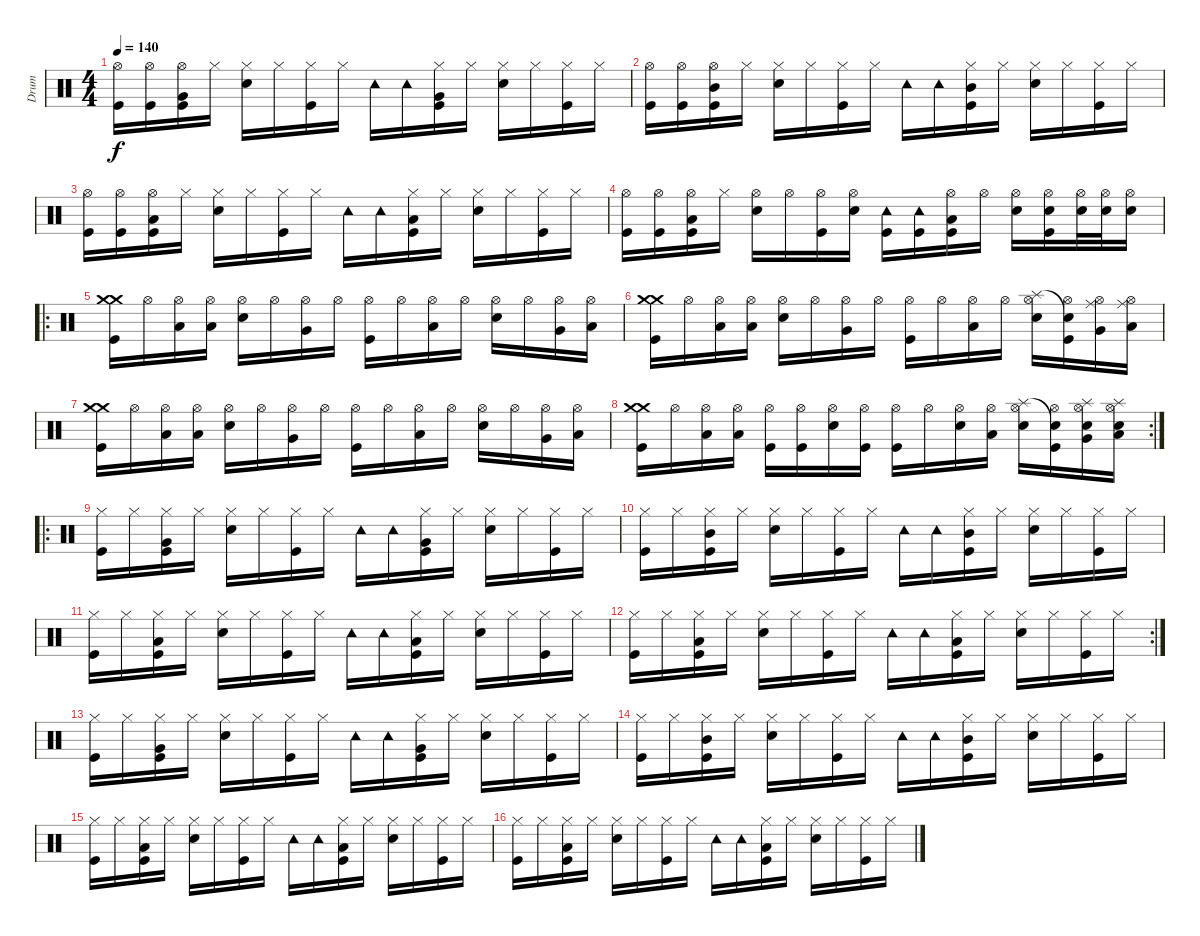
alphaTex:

\track ("Drum" "Drum") {instrument percussion}
\staff {score}
\articulation defaults
\ts (4 4)
\tempo 140
\clef neutral
\ks c
("Hi-Hat (open)" "Kick (hit)").16{dy f} ("Hi-Hat (open)" "Kick (hit)").16 ("Hi-Hat (open)" "Very Low Tom (hit)" "Kick (hit)").16 "Hi-Hat (closed)".16 ("Hi-Hat (closed)" "Snare (hit) 2").16 "Hi-Hat (closed)".16 ("Hi-Hat (closed)" "Kick (hit)").16 "Hi-Hat (closed)".16 "Tambourine (hit)".16 "Tambourine (hit)".16 ("Hi-Hat (closed)" "Very Low Tom (hit)" "Kick (hit)").16 "Hi-Hat (closed)".16 ("Hi-Hat (closed)" "Snare (hit) 2").16 "Hi-Hat (closed)".16 ("Hi-Hat (closed)" "Kick (hit)").16 "Hi-Hat (closed)".16 |
("Hi-Hat (open)" "Kick (hit)").16 ("Hi-Hat (open)" "Kick (hit)").16 ("Hi-Hat (open)" "Mid Tom (hit)" "Kick (hit)").16 "Hi-Hat (closed)".16 ("Hi-Hat (closed)" "Snare (hit) 2").16 "Hi-Hat (closed)".16 ("Hi-Hat (closed)" "Kick (hit)").16 "Hi-Hat (closed)".16 "Tambourine (hit)".16 "Tambourine (hit)".16 ("Hi-Hat (closed)" "Mid Tom (hit)" "Kick (hit)").16 "Hi-Hat (closed)".16 ("Hi-Hat (closed)" "Snare (hit) 2").16 "Hi-Hat (closed)".16 ("Hi-Hat (closed)" "Kick (hit)").16 "Hi-Hat (closed)".16 |
("Hi-Hat (open)" "Kick (hit)").16 ("Hi-Hat (open)" "Kick (hit)").16 ("Hi-Hat (open)" "Low Tom (hit)" "Kick (hit)").16 "Hi-Hat (closed)".16 ("Hi-Hat (closed)" "Snare (hit) 2").16 "Hi-Hat (closed)".16 ("Hi-Hat (closed)" "Kick (hit)").16 "Hi-Hat (closed)".16 "Tambourine (hit)".16 "Tambourine (hit)".16 ("Hi-Hat (closed)" "Low Tom (hit)" "Kick (hit)").16 "Hi-Hat (closed)".16 ("Hi-Hat (closed)" "Snare (hit) 2").16 "Hi-Hat (closed)".16 ("Hi-Hat (closed)" "Kick (hit)").16 "Hi-Hat (closed)".16 |
("Hi-Hat (open)" "Kick (hit)").16 ("Hi-Hat (open)" "Kick (hit)").16 ("Hi-Hat (open)" "Low Floor Tom (hit)" "Kick (hit)").16 "Hi-Hat (closed)".16 ("Hi-Hat (open)" "Snare (hit) 2").16 "Hi-Hat (open)".16 ("Hi-Hat (open)" "Kick (hit)").16 ("Hi-Hat (open)" "Snare (hit) 2").16 ("Tambourine (hit)" "Kick (hit)").16 ("Tambourine (hit)" "Kick (hit)").16 ("Hi-Hat (open)" "Low Floor Tom (hit)" "Kick (hit)").16 "Hi-Hat (open)".16 ("Hi-Hat (open)" "Snare (hit) 2").16 ("Hi-Hat (open)" "Snare (hit) 2" "Kick (hit)").16 ("Hi-Hat (open)" "Snare (hit) 2").32 ("Hi-Hat (open)" "Snare (hit) 2").32 ("Hi-Hat (open)" "Snare (hit) 2").16 |
\ro
("Crash medium (hit)" "Crash medium (hit)" "Kick (hit)").16 "Hi-Hat (open)".16 ("Hi-Hat (open)" "Low Tom (hit)").16 ("Hi-Hat (open)" "Low Tom (hit)").16 ("Hi-Hat (open)" "Snare (hit) 2").16 "Hi-Hat (open)".16 ("Hi-Hat (open)" "Very Low Tom (hit)").16 "Hi-Hat (open)".16 ("Hi-Hat (open)" "Kick (hit)").16 "Hi-Hat (open)".16 ("Hi-Hat (open)" "Low Tom (hit)").16 "Hi-Hat (open)".16 ("Hi-Hat (open)" "Snare (hit) 2").16 "Hi-Hat (open)".16 ("Hi-Hat (open)" "Very Low Tom (hit)").16 ("Hi-Hat (open)" "Low Floor Tom (hit)").16 |
("Crash medium (hit)" "Crash medium (hit)" "Kick (hit)").16 "Hi-Hat (open)".16 ("Hi-Hat (open)" "Low Tom (hit)").16 ("Hi-Hat (open)" "Low Tom (hit)").16 ("Hi-Hat (open)" "Snare (hit) 2").16 "Hi-Hat (open)".16 ("Hi-Hat (open)" "Very Low Tom (hit)").16 "Hi-Hat (open)".16 ("Hi-Hat (open)" "Kick (hit)").16 "Hi-Hat (open)".16 ("Hi-Hat (open)" "Low Tom (hit)").16 "Hi-Hat (open)".16 ("Hi-Hat (open)" "Splash (hit)" "Snare (hit) 2").16 ("Hi-Hat (open)" "Snare (hit)"{t} "Kick (hit)").16 ("Hi-Hat (open)" "Ride (middle)" "Very Low Tom (hit)").16 ("Hi-Hat (open)" "Ride (middle)" "Low Floor Tom (hit)").16 |
("Crash medium (hit)" "Crash medium (hit)" "Kick (hit)").16 "Hi-Hat (open)".16 ("Hi-Hat (open)" "Low Tom (hit)").16 ("Hi-Hat (open)" "Low Tom (hit)").16 ("Hi-Hat (open)" "Snare (hit) 2").16 "Hi-Hat (open)".16 ("Hi-Hat (open)" "Very Low Tom (hit)").16 "Hi-Hat (open)".16 ("Hi-Hat (open)" "Kick (hit)").16 "Hi-Hat (open)".16 ("Hi-Hat (open)" "Low Tom (hit)").16 "Hi-Hat (open)".16 ("Hi-Hat (open)" "Snare (hit) 2").16 "Hi-Hat (open)".16 ("Hi-Hat (open)" "Very Low Tom (hit)").16 ("Hi-Hat (open)" "Low Floor Tom (hit)").16 |
\rc 2
("Crash medium (hit)" "Crash medium (hit)" "Kick (hit)").16 "Hi-Hat (open)".16 ("Hi-Hat (open)" "Low Tom (hit)").16 ("Hi-Hat (open)" "Low Tom (hit)").16 ("Hi-Hat (open)" "Kick (hit)").16 ("Hi-Hat (open)" "Kick (hit)").16 ("Hi-Hat (open)" "Snare (hit) 2").16 ("Hi-Hat (open)" "Kick (hit)").16 ("Hi-Hat (open)" "Kick (hit)").16 "Hi-Hat (open)".16 ("Hi-Hat (open)" "Snare (hit) 2").16 ("Hi-Hat (open)" "Low Tom (hit)").16 ("Hi-Hat (open)" "Splash (hit)" "Snare (hit) 2").16 ("Hi-Hat (open)" "Snare (hit)"{t} "Kick (hit)").16 ("Hi-Hat (open)" "Splash (hit)" "Very Low Tom (hit)" "Snare (hit) 2").16 ("Hi-Hat (open)" "Splash (hit)" "Low Floor Tom (hit)" "Snare (hit) 2").16 |
\ro
("Hi-Hat (closed)" "Kick (hit)").16 "Hi-Hat (closed)".16 ("Hi-Hat (closed)" "Very Low Tom (hit)" "Kick (hit)").16 "Hi-Hat (closed)".16 ("Hi-Hat (closed)" "Snare (hit) 2").16 "Hi-Hat (closed)".16 ("Hi-Hat (closed)" "Kick (hit)").16 "Hi-Hat (closed)".16 "Tambourine (hit)".16 "Tambourine (hit)".16 ("Hi-Hat (closed)" "Very Low Tom (hit)" "Kick (hit)").16 "Hi-Hat (closed)".16 ("Hi-Hat (closed)" "Snare (hit) 2").16 "Hi-Hat (closed)".16 ("Hi-Hat (closed)" "Kick (hit)").16 "Hi-Hat (closed)".16 |
("Hi-Hat (closed)" "Kick (hit)").16 "Hi-Hat (closed)".16 ("Hi-Hat (closed)" "Mid Tom (hit)" "Kick (hit)").16 "Hi-Hat (closed)".16 ("Hi-Hat (closed)" "Snare (hit) 2").16 "Hi-Hat (closed)".16 ("Hi-Hat (closed)" "Kick (hit)").16 "Hi-Hat (closed)".16 "Tambourine (hit)".16 "Tambourine (hit)".16 ("Hi-Hat (closed)" "Mid Tom (hit)" "Kick (hit)").16 "Hi-Hat (closed)".16 ("Hi-Hat (closed)" "Snare (hit) 2").16 "Hi-Hat (closed)".16 ("Hi-Hat (closed)" "Kick (hit)").16 "Hi-Hat (closed)".16 |
("Hi-Hat (closed)" "Kick (hit)").16 "Hi-Hat (closed)".16 ("Hi-Hat (closed)" "Low Tom (hit)" "Kick (hit)").16 "Hi-Hat (closed)".16 ("Hi-Hat (closed)" "Snare (hit) 2").16 "Hi-Hat (closed)".16 ("Hi-Hat (closed)" "Kick (hit)").16 "Hi-Hat (closed)".16 "Tambourine (hit)".16 "Tambourine (hit)".16 ("Hi-Hat (closed)" "Low Tom (hit)" "Kick (hit)").16 "Hi-Hat (closed)".16 ("Hi-Hat (closed)" "Snare (hit) 2").16 "Hi-Hat (closed)".16 ("Hi-Hat (closed)" "Kick (hit)").16 "Hi-Hat (closed)".16 |
\rc 2
("Hi-Hat (closed)" "Kick (hit)").16 "Hi-Hat (closed)".16 ("Hi-Hat (closed)" "Low Floor Tom (hit)" "Kick (hit)").16 "Hi-Hat (closed)".16 ("Hi-Hat (closed)" "Snare (hit) 2").16 "Hi-Hat (closed)".16 ("Hi-Hat (closed)" "Kick (hit)").16 "Hi-Hat (closed)".16 "Tambourine (hit)".16 "Tambourine (hit)".16 ("Hi-Hat (closed)" "Low Floor Tom (hit)" "Kick (hit)").16 "Hi-Hat (closed)".16 ("Hi-Hat (closed)" "Snare (hit) 2").16 "Hi-Hat (closed)".16 ("Hi-Hat (closed)" "Kick (hit)").16 "Hi-Hat (closed)".16 |
("Hi-Hat (closed)" "Kick (hit)").16 "Hi-Hat (closed)".16 ("Hi-Hat (closed)" "Very Low Tom (hit)" "Kick (hit)").16 "Hi-Hat (closed)".16 ("Hi-Hat (closed)" "Snare (hit) 2").16 "Hi-Hat (closed)".16 ("Hi-Hat (closed)" "Kick (hit)").16 "Hi-Hat (closed)".16 "Tambourine (hit)".16 "Tambourine (hit)".16 ("Hi-Hat (closed)" "Very Low Tom (hit)" "Kick (hit)").16 "Hi-Hat (closed)".16 ("Hi-Hat (closed)" "Snare (hit) 2").16 "Hi-Hat (closed)".16 ("Hi-Hat (closed)" "Kick (hit)").16 "Hi-Hat (closed)".16 |
("Hi-Hat (closed)" "Kick (hit)").16 "Hi-Hat (closed)".16 ("Hi-Hat (closed)" "Mid Tom (hit)" "Kick (hit)").16 "Hi-Hat (closed)".16 ("Hi-Hat (closed)" "Snare (hit) 2").16 "Hi-Hat (closed)".16 ("Hi-Hat (closed)" "Kick (hit)").16 "Hi-Hat (closed)".16 "Tambourine (hit)".16 "Tambourine (hit)".16 ("Hi-Hat (closed)" "Mid Tom (hit)" "Kick (hit)").16 "Hi-Hat (closed)".16 ("Hi-Hat (closed)" "Snare (hit) 2").16 "Hi-Hat (closed)".16 ("Hi-Hat (closed)" "Kick (hit)").16 "Hi-Hat (closed)".16 |
("Hi-Hat (closed)" "Kick (hit)").16 "Hi-Hat (closed)".16 ("Hi-Hat (closed)" "Low Tom (hit)" "Kick (hit)").16 "Hi-Hat (closed)".16 ("Hi-Hat (closed)" "Snare (hit) 2").16 "Hi-Hat (closed)".16 ("Hi-Hat (closed)" "Kick (hit)").16 "Hi-Hat (closed)".16 "Tambourine (hit)".16 "Tambourine (hit)".16 ("Hi-Hat (closed)" "Low Tom (hit)" "Kick (hit)").16 "Hi-Hat (closed)".16 ("Hi-Hat (closed)" "Snare (hit) 2").16 "Hi-Hat (closed)".16 ("Hi-Hat (closed)" "Kick (hit)").16 "Hi-Hat (closed)".16 |
("Hi-Hat (closed)" "Kick (hit)").16 "Hi-Hat (closed)".16 ("Hi-Hat (closed)" "Low Floor Tom (hit)" "Kick (hit)").16 "Hi-Hat (closed)".16 ("Hi-Hat (closed)" "Snare (hit) 2").16 "Hi-Hat (closed)".16 ("Hi-Hat (closed)" "Kick (hit)").16 "Hi-Hat (closed)".16 "Tambourine (hit)".16 "Tambourine (hit)".16 ("Hi-Hat (closed)" "Low Floor Tom (hit)" "Kick (hit)").16 "Hi-Hat (closed)".16 ("Hi-Hat (closed)" "Snare (hit) 2").16 "Hi-Hat (closed)".16 ("Hi-Hat (closed)" "Kick (hit)").16 "Hi-Hat (closed)".16
